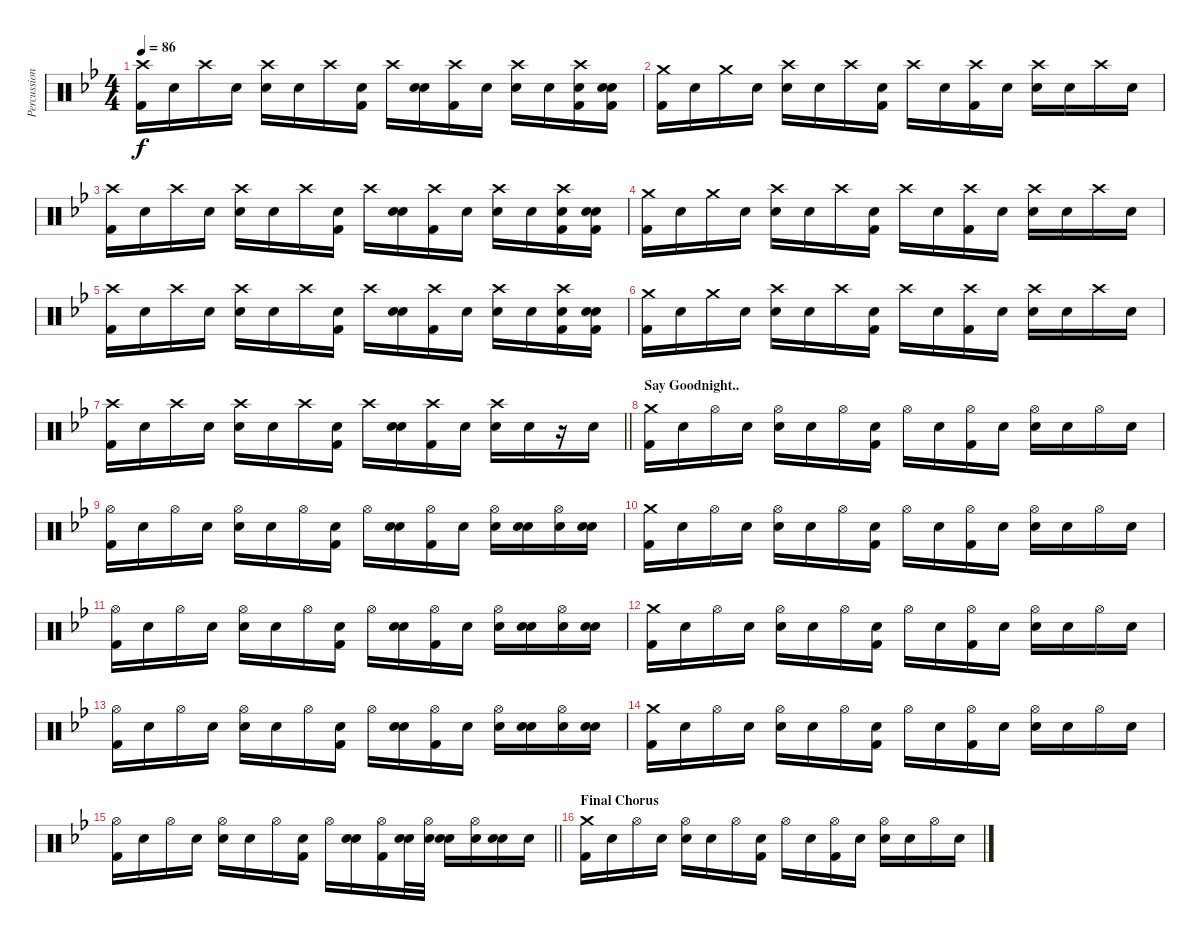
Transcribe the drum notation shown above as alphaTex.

\track ("Percussion" "Percussion") {instrument percussion}
\staff {score}
\articulation defaults
\ts (4 4)
\tempo 86
\clef neutral
\ks gminor
("Crash high (hit)" "Kick (hit) 2").16{dy f volume 13} "Snare (hit)".16 "Crash high (hit)".16 "Snare (hit)".16 ("Crash high (hit)" "Electric Snare (hit)").16 "Snare (hit)".16 "Crash high (hit)".16 ("Snare (hit)" "Kick (hit) 2").16 "Crash high (hit)".16 ("Snare (hit)" "Electric Snare (hit)").16 ("Crash high (hit)" "Kick (hit) 2").16 "Snare (hit)".16 ("Crash high (hit)" "Electric Snare (hit)").16 "Snare (hit)".16 ("Crash high (hit)" "Snare (hit) 2" "Kick (hit) 2").16 ("Snare (hit)" "Snare (hit) 2" "Kick (hit) 2").16 |
("Crash medium (hit)" "Kick (hit) 2").16{volume 13} "Snare (hit)".16 "Crash medium (hit)".16 "Snare (hit)".16 ("Crash high (hit)" "Electric Snare (hit)").16 "Snare (hit)".16 "Crash high (hit)".16 ("Snare (hit)" "Kick (hit) 2").16 "Crash high (hit)".16 "Snare (hit)".16 ("Crash high (hit)" "Kick (hit) 2").16 "Snare (hit)".16 ("Crash high (hit)" "Electric Snare (hit)").16 "Snare (hit)".16 "Crash high (hit)".16 "Snare (hit)".16 |
("Crash high (hit)" "Kick (hit) 2").16{volume 13} "Snare (hit)".16 "Crash high (hit)".16 "Snare (hit)".16 ("Crash high (hit)" "Electric Snare (hit)").16 "Snare (hit)".16 "Crash high (hit)".16 ("Snare (hit)" "Kick (hit) 2").16 "Crash high (hit)".16 ("Snare (hit)" "Electric Snare (hit)").16 ("Crash high (hit)" "Kick (hit) 2").16 "Snare (hit)".16 ("Crash high (hit)" "Electric Snare (hit)").16 "Snare (hit)".16 ("Crash high (hit)" "Snare (hit) 2" "Kick (hit) 2").16 ("Snare (hit)" "Snare (hit) 2" "Kick (hit) 2").16 |
("Crash medium (hit)" "Kick (hit) 2").16{volume 13} "Snare (hit)".16 "Crash medium (hit)".16 "Snare (hit)".16 ("Crash high (hit)" "Electric Snare (hit)").16 "Snare (hit)".16 "Crash high (hit)".16 ("Snare (hit)" "Kick (hit) 2").16 "Crash high (hit)".16 "Snare (hit)".16 ("Crash high (hit)" "Kick (hit) 2").16 "Snare (hit)".16 ("Crash high (hit)" "Electric Snare (hit)").16 "Snare (hit)".16 "Crash high (hit)".16 "Snare (hit)".16 |
("Crash high (hit)" "Kick (hit) 2").16{volume 13} "Snare (hit)".16 "Crash high (hit)".16 "Snare (hit)".16 ("Crash high (hit)" "Electric Snare (hit)").16 "Snare (hit)".16 "Crash high (hit)".16 ("Snare (hit)" "Kick (hit) 2").16 "Crash high (hit)".16 ("Snare (hit)" "Electric Snare (hit)").16 ("Crash high (hit)" "Kick (hit) 2").16 "Snare (hit)".16 ("Crash high (hit)" "Electric Snare (hit)").16 "Snare (hit)".16 ("Crash high (hit)" "Snare (hit) 2" "Kick (hit) 2").16 ("Snare (hit)" "Snare (hit) 2" "Kick (hit) 2").16 |
("Crash medium (hit)" "Kick (hit) 2").16{volume 13} "Snare (hit)".16 "Crash medium (hit)".16 "Snare (hit)".16 ("Crash high (hit)" "Electric Snare (hit)").16 "Snare (hit)".16 "Crash high (hit)".16 ("Snare (hit)" "Kick (hit) 2").16 "Crash high (hit)".16 "Snare (hit)".16 ("Crash high (hit)" "Kick (hit) 2").16 "Snare (hit)".16 ("Crash high (hit)" "Electric Snare (hit)").16 "Snare (hit)".16 "Crash high (hit)".16 "Snare (hit)".16 |
\barLineRight lightlight
("Crash high (hit)" "Kick (hit) 2").16{volume 13} "Snare (hit)".16 "Crash high (hit)".16 "Snare (hit)".16 ("Crash high (hit)" "Electric Snare (hit)").16 "Snare (hit)".16 "Crash high (hit)".16 ("Snare (hit)" "Kick (hit) 2").16 "Crash high (hit)".16 ("Snare (hit)" "Electric Snare (hit)").16 ("Crash high (hit)" "Kick (hit) 2").16 "Snare (hit)".16 ("Crash high (hit)" "Electric Snare (hit)").16 "Snare (hit)".16 r.16 "Snare (hit)".16 |
\section ("" "Say Goodnight..")
("Crash medium (hit)" "Kick (hit) 2").16 "Snare (hit)".16 "Hi-Hat (open)".16 "Snare (hit)".16 ("Hi-Hat (open)" "Electric Snare (hit)").16 "Snare (hit)".16 "Hi-Hat (open)".16 ("Snare (hit)" "Kick (hit) 2").16 "Hi-Hat (open)".16 "Snare (hit)".16 ("Hi-Hat (open)" "Kick (hit) 2").16 "Snare (hit)".16 ("Hi-Hat (open)" "Electric Snare (hit)").16 "Snare (hit)".16 "Hi-Hat (open)".16 "Snare (hit)".16 |
("Hi-Hat (open)" "Kick (hit) 2").16 "Snare (hit)".16 "Hi-Hat (open)".16 "Snare (hit)".16 ("Hi-Hat (open)" "Electric Snare (hit)").16 "Snare (hit)".16 "Hi-Hat (open)".16 ("Snare (hit)" "Kick (hit) 2").16 "Hi-Hat (open)".16 ("Snare (hit)" "Electric Snare (hit)").16 ("Hi-Hat (open)" "Kick (hit) 2").16 "Snare (hit)".16 ("Hi-Hat (open)" "Electric Snare (hit)").16 ("Snare (hit)" "Electric Snare (hit)").16 ("Hi-Hat (open)" "Electric Snare (hit)").16 ("Snare (hit)" "Electric Snare (hit)").16 |
("Crash medium (hit)" "Kick (hit) 2").16 "Snare (hit)".16 "Hi-Hat (open)".16 "Snare (hit)".16 ("Hi-Hat (open)" "Electric Snare (hit)").16 "Snare (hit)".16 "Hi-Hat (open)".16 ("Snare (hit)" "Kick (hit) 2").16 "Hi-Hat (open)".16 "Snare (hit)".16 ("Hi-Hat (open)" "Kick (hit) 2").16 "Snare (hit)".16 ("Hi-Hat (open)" "Electric Snare (hit)").16 "Snare (hit)".16 "Hi-Hat (open)".16 "Snare (hit)".16 |
("Hi-Hat (open)" "Kick (hit) 2").16 "Snare (hit)".16 "Hi-Hat (open)".16 "Snare (hit)".16 ("Hi-Hat (open)" "Electric Snare (hit)").16 "Snare (hit)".16 "Hi-Hat (open)".16 ("Snare (hit)" "Kick (hit) 2").16 "Hi-Hat (open)".16 ("Snare (hit)" "Electric Snare (hit)").16 ("Hi-Hat (open)" "Kick (hit) 2").16 "Snare (hit)".16 ("Hi-Hat (open)" "Electric Snare (hit)").16 ("Snare (hit)" "Electric Snare (hit)").16 ("Hi-Hat (open)" "Electric Snare (hit)").16 ("Snare (hit)" "Electric Snare (hit)").16 |
("Crash medium (hit)" "Kick (hit) 2").16 "Snare (hit)".16 "Hi-Hat (open)".16 "Snare (hit)".16 ("Hi-Hat (open)" "Electric Snare (hit)").16 "Snare (hit)".16 "Hi-Hat (open)".16 ("Snare (hit)" "Kick (hit) 2").16 "Hi-Hat (open)".16 "Snare (hit)".16 ("Hi-Hat (open)" "Kick (hit) 2").16 "Snare (hit)".16 ("Hi-Hat (open)" "Electric Snare (hit)").16 "Snare (hit)".16 "Hi-Hat (open)".16 "Snare (hit)".16 |
("Hi-Hat (open)" "Kick (hit) 2").16 "Snare (hit)".16 "Hi-Hat (open)".16 "Snare (hit)".16 ("Hi-Hat (open)" "Electric Snare (hit)").16 "Snare (hit)".16 "Hi-Hat (open)".16 ("Snare (hit)" "Kick (hit) 2").16 "Hi-Hat (open)".16 ("Snare (hit)" "Electric Snare (hit)").16 ("Hi-Hat (open)" "Kick (hit) 2").16 "Snare (hit)".16 ("Hi-Hat (open)" "Electric Snare (hit)").16 ("Snare (hit)" "Electric Snare (hit)").16 ("Hi-Hat (open)" "Electric Snare (hit)").16 ("Snare (hit)" "Electric Snare (hit)").16 |
("Crash medium (hit)" "Kick (hit) 2").16 "Snare (hit)".16 "Hi-Hat (open)".16 "Snare (hit)".16 ("Hi-Hat (open)" "Electric Snare (hit)").16 "Snare (hit)".16 "Hi-Hat (open)".16 ("Snare (hit)" "Kick (hit) 2").16 "Hi-Hat (open)".16 "Snare (hit)".16 ("Hi-Hat (open)" "Kick (hit) 2").16 "Snare (hit)".16 ("Hi-Hat (open)" "Electric Snare (hit)").16 "Snare (hit)".16 "Hi-Hat (open)".16 "Snare (hit)".16 |
\barLineRight lightlight
("Hi-Hat (open)" "Kick (hit) 2").16 "Snare (hit)".16 "Hi-Hat (open)".16 "Snare (hit)".16 ("Hi-Hat (open)" "Electric Snare (hit)").16 "Snare (hit)".16 "Hi-Hat (open)".16 ("Snare (hit)" "Kick (hit) 2").16 "Hi-Hat (open)".16 ("Snare (hit)" "Electric Snare (hit)").16 ("Hi-Hat (open)" "Kick (hit) 2").16 ("Snare (hit)" "Electric Snare (hit)").32 ("Hi-Hat (open)" "Electric Snare (hit)").32 ("Snare (hit)" "Electric Snare (hit)").16 ("Hi-Hat (open)" "Electric Snare (hit)").16 ("Snare (hit)" "Electric Snare (hit)").16 "Electric Snare (hit)".16 |
\section ("" "Final Chorus")
("Crash medium (hit)" "Kick (hit) 2").16 "Snare (hit)".16 "Hi-Hat (open)".16 "Snare (hit)".16 ("Hi-Hat (open)" "Electric Snare (hit)").16 "Snare (hit)".16 "Hi-Hat (open)".16 ("Snare (hit)" "Kick (hit) 2").16 "Hi-Hat (open)".16 "Snare (hit)".16 ("Hi-Hat (open)" "Kick (hit) 2").16 "Snare (hit)".16 ("Hi-Hat (open)" "Electric Snare (hit)").16 "Snare (hit)".16 "Hi-Hat (open)".16 "Snare (hit)".16
